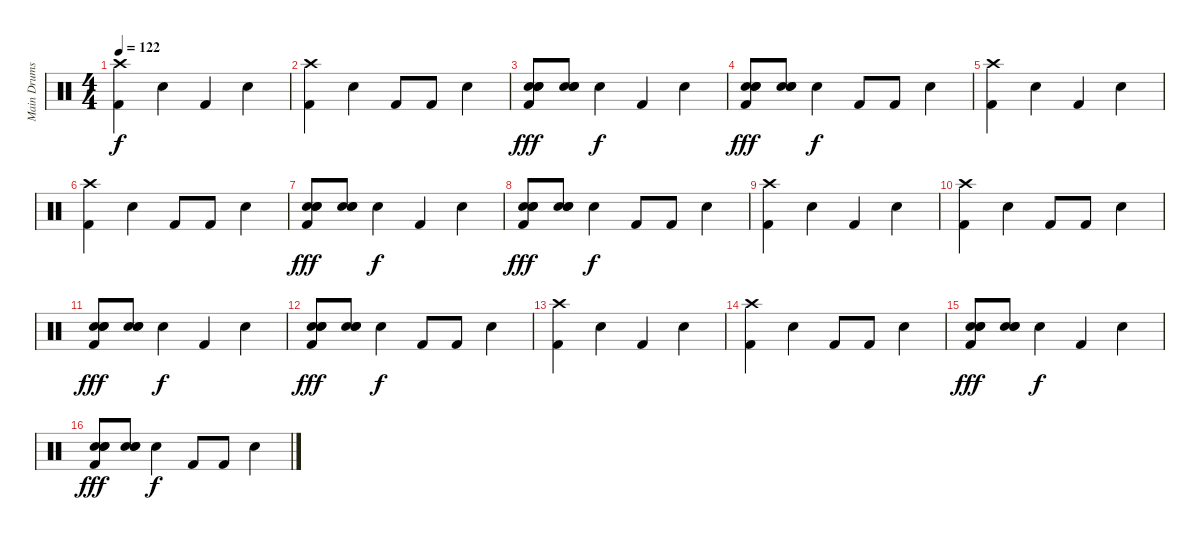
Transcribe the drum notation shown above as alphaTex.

\track ("Main Drums" "Main Drums") {instrument percussion}
\staff {score}
\articulation defaults
\ts (4 4)
\tempo 122
\clef neutral
\ks c
("Kick (hit) 2" "Crash high (hit)").4{dy f} "Snare (hit) 2".4 "Kick (hit) 2".4 "Snare (hit) 2".4 |
("Kick (hit) 2" "Crash high (hit)").4 "Snare (hit) 2".4 "Kick (hit) 2".8 "Kick (hit) 2".8 "Snare (hit) 2".4 |
("Hand Clap (hit)" "Hand Clap (hit)" "Electric Snare (hit)" "Kick (hit) 2").8{dy fff} ("Hand Clap (hit)" "Hand Clap (hit)" "Electric Snare (hit)").8 "Snare (hit) 2".4{dy f} "Kick (hit) 2".4 "Snare (hit) 2".4 |
("Hand Clap (hit)" "Hand Clap (hit)" "Electric Snare (hit)" "Kick (hit) 2").8{dy fff} ("Hand Clap (hit)" "Hand Clap (hit)" "Electric Snare (hit)").8 "Snare (hit) 2".4{dy f} "Kick (hit) 2".8 "Kick (hit) 2".8 "Snare (hit) 2".4 |
("Kick (hit) 2" "Crash high (hit)").4 "Snare (hit) 2".4 "Kick (hit) 2".4 "Snare (hit) 2".4 |
("Kick (hit) 2" "Crash high (hit)").4 "Snare (hit) 2".4 "Kick (hit) 2".8 "Kick (hit) 2".8 "Snare (hit) 2".4 |
("Hand Clap (hit)" "Hand Clap (hit)" "Electric Snare (hit)" "Kick (hit) 2").8{dy fff} ("Hand Clap (hit)" "Hand Clap (hit)" "Electric Snare (hit)").8 "Snare (hit) 2".4{dy f} "Kick (hit) 2".4 "Snare (hit) 2".4 |
("Hand Clap (hit)" "Hand Clap (hit)" "Electric Snare (hit)" "Kick (hit) 2").8{dy fff} ("Hand Clap (hit)" "Hand Clap (hit)" "Electric Snare (hit)").8 "Snare (hit) 2".4{dy f} "Kick (hit) 2".8 "Kick (hit) 2".8 "Snare (hit) 2".4 |
("Kick (hit) 2" "Crash high (hit)").4 "Snare (hit) 2".4 "Kick (hit) 2".4 "Snare (hit) 2".4 |
("Kick (hit) 2" "Crash high (hit)").4 "Snare (hit) 2".4 "Kick (hit) 2".8 "Kick (hit) 2".8 "Snare (hit) 2".4 |
("Hand Clap (hit)" "Hand Clap (hit)" "Electric Snare (hit)" "Kick (hit) 2").8{dy fff} ("Hand Clap (hit)" "Hand Clap (hit)" "Electric Snare (hit)").8 "Snare (hit) 2".4{dy f} "Kick (hit) 2".4 "Snare (hit) 2".4 |
("Hand Clap (hit)" "Hand Clap (hit)" "Electric Snare (hit)" "Kick (hit) 2").8{dy fff} ("Hand Clap (hit)" "Hand Clap (hit)" "Electric Snare (hit)").8 "Snare (hit) 2".4{dy f} "Kick (hit) 2".8 "Kick (hit) 2".8 "Snare (hit) 2".4 |
("Kick (hit) 2" "Crash high (hit)").4 "Snare (hit) 2".4 "Kick (hit) 2".4 "Snare (hit) 2".4 |
("Kick (hit) 2" "Crash high (hit)").4 "Snare (hit) 2".4 "Kick (hit) 2".8 "Kick (hit) 2".8 "Snare (hit) 2".4 |
("Hand Clap (hit)" "Hand Clap (hit)" "Electric Snare (hit)" "Kick (hit) 2").8{dy fff} ("Hand Clap (hit)" "Hand Clap (hit)" "Electric Snare (hit)").8 "Snare (hit) 2".4{dy f} "Kick (hit) 2".4 "Snare (hit) 2".4 |
("Hand Clap (hit)" "Hand Clap (hit)" "Electric Snare (hit)" "Kick (hit) 2").8{dy fff} ("Hand Clap (hit)" "Hand Clap (hit)" "Electric Snare (hit)").8 "Snare (hit) 2".4{dy f} "Kick (hit) 2".8 "Kick (hit) 2".8 "Snare (hit) 2".4
